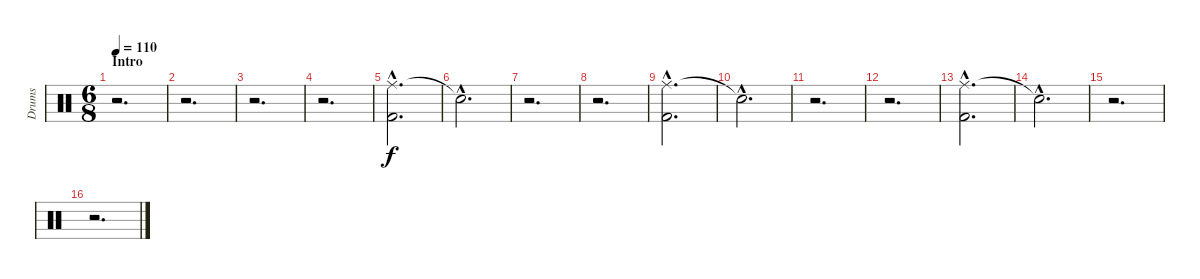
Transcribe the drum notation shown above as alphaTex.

\track ("Drums" "Drums") {instrument percussion}
\staff {score}
\articulation defaults
\ts (6 8)
\section ("" "Intro")
\tempo 110
\tempo 120
\tempo 110
\clef neutral
\ks c
r.2{d dy f} |
r.2{d} |
r.2{d} |
r.2{d} |
("Ride (middle)"{hac} "Kick (hit) 2"{hac}).2{d} |
"Snare (hit)"{hac t}.2{d} |
r.2{d} |
r.2{d} |
("Ride (middle)"{hac} "Kick (hit) 2"{hac}).2{d} |
"Snare (hit)"{hac t}.2{d} |
r.2{d} |
r.2{d} |
("Ride (middle)"{hac} "Kick (hit) 2"{hac}).2{d} |
"Snare (hit)"{hac t}.2{d} |
r.2{d} |
r.2{d}
